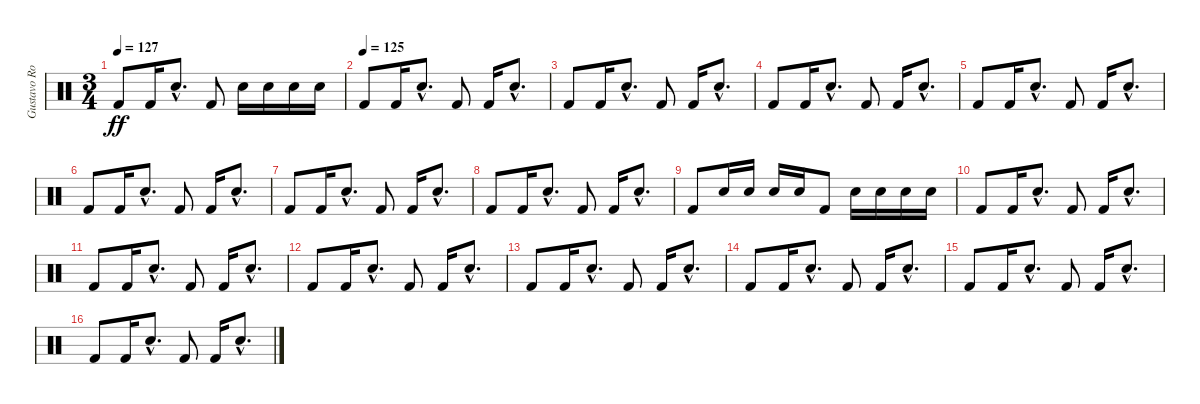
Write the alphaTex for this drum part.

\track ("Gustavo Rowek 2" "Gustavo Ro") {instrument percussion}
\staff {score}
\articulation defaults
\ts (3 4)
\tempo 127
\clef neutral
\ks c "Kick (hit) 2".8{dy ff} "Kick (hit) 2".16 "Snare (hit) 2"{hac}.8{d} "Kick (hit) 2".8 "Electric Snare (hit)".16 "Electric Snare (hit)".16 "Electric Snare (hit)".16 "Electric Snare (hit)".16
|
\tempo (125)
"Kick (hit) 2".8 "Kick (hit) 2".16 "Snare (hit) 2"{hac}.8{d} "Kick (hit) 2".8 "Kick (hit) 2".16 "Snare (hit) 2"{hac}.8{d} |
"Kick (hit) 2".8 "Kick (hit) 2".16 "Snare (hit) 2"{hac}.8{d} "Kick (hit) 2".8 "Kick (hit) 2".16 "Snare (hit) 2"{hac}.8{d} |
"Kick (hit) 2".8 "Kick (hit) 2".16 "Snare (hit) 2"{hac}.8{d} "Kick (hit) 2".8 "Kick (hit) 2".16 "Snare (hit) 2"{hac}.8{d} |
"Kick (hit) 2".8 "Kick (hit) 2".16 "Snare (hit) 2"{hac}.8{d} "Kick (hit) 2".8 "Kick (hit) 2".16 "Snare (hit) 2"{hac}.8{d} |
"Kick (hit) 2".8 "Kick (hit) 2".16 "Snare (hit) 2"{hac}.8{d} "Kick (hit) 2".8 "Kick (hit) 2".16 "Snare (hit) 2"{hac}.8{d} |
"Kick (hit) 2".8 "Kick (hit) 2".16 "Snare (hit) 2"{hac}.8{d} "Kick (hit) 2".8 "Kick (hit) 2".16 "Snare (hit) 2"{hac}.8{d} |
"Kick (hit) 2".8 "Kick (hit) 2".16 "Snare (hit) 2"{hac}.8{d} "Kick (hit) 2".8 "Kick (hit) 2".16 "Snare (hit) 2"{hac}.8{d} |
"Kick (hit) 2".8 "Electric Snare (hit)".16 "Electric Snare (hit)".16 "Electric Snare (hit)".16 "Electric Snare (hit)".16 "Kick (hit) 2".8 "Electric Snare (hit)".16 "Electric Snare (hit)".16 "Electric Snare (hit)".16 "Electric Snare (hit)".16 |
"Kick (hit) 2".8 "Kick (hit) 2".16 "Snare (hit) 2"{hac}.8{d} "Kick (hit) 2".8 "Kick (hit) 2".16 "Snare (hit) 2"{hac}.8{d} |
"Kick (hit) 2".8 "Kick (hit) 2".16 "Snare (hit) 2"{hac}.8{d} "Kick (hit) 2".8 "Kick (hit) 2".16 "Snare (hit) 2"{hac}.8{d} |
"Kick (hit) 2".8 "Kick (hit) 2".16 "Snare (hit) 2"{hac}.8{d} "Kick (hit) 2".8 "Kick (hit) 2".16 "Snare (hit) 2"{hac}.8{d} |
"Kick (hit) 2".8 "Kick (hit) 2".16 "Snare (hit) 2"{hac}.8{d} "Kick (hit) 2".8 "Kick (hit) 2".16 "Snare (hit) 2"{hac}.8{d} |
"Kick (hit) 2".8 "Kick (hit) 2".16 "Snare (hit) 2"{hac}.8{d} "Kick (hit) 2".8 "Kick (hit) 2".16 "Snare (hit) 2"{hac}.8{d} |
"Kick (hit) 2".8 "Kick (hit) 2".16 "Snare (hit) 2"{hac}.8{d} "Kick (hit) 2".8 "Kick (hit) 2".16 "Snare (hit) 2"{hac}.8{d} |
"Kick (hit) 2".8 "Kick (hit) 2".16 "Snare (hit) 2"{hac}.8{d} "Kick (hit) 2".8 "Kick (hit) 2".16 "Snare (hit) 2"{hac}.8{d}
